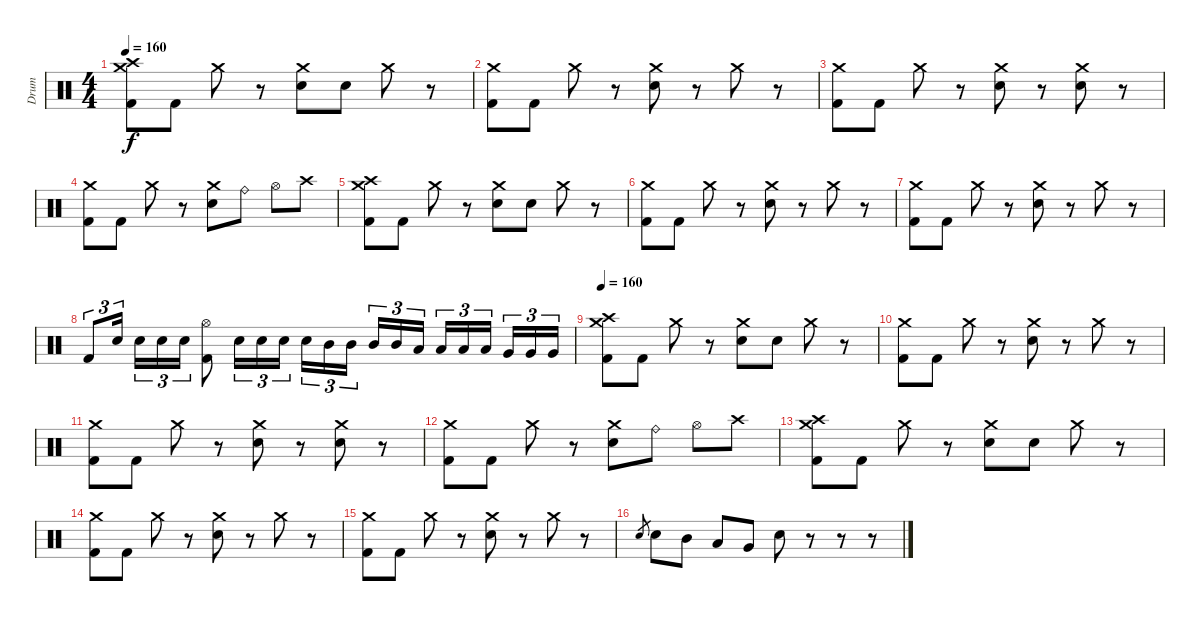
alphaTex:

\track ("Drum" "Drum") {instrument percussion}
\staff {score}
\articulation defaults
\ts (4 4)
\tempo 160
\clef neutral
\ks c
("Crash high (hit)" "Crash medium (hit)" "Kick (hit) 2").8{dy f} "Kick (hit) 2".8 "Crash medium (hit)".8 r.8 ("Crash medium (hit)" "Electric Snare (hit)").8 "Electric Snare (hit)".8 "Crash medium (hit)".8 r.8 |
("Crash medium (hit)" "Kick (hit) 2").8 "Kick (hit) 2".8 "Crash medium (hit)".8 r.8 ("Crash medium (hit)" "Electric Snare (hit)").8 r.8 "Crash medium (hit)".8 r.8 |
("Crash medium (hit)" "Kick (hit) 2").8 "Kick (hit) 2".8 "Crash medium (hit)".8 r.8 ("Crash medium (hit)" "Electric Snare (hit)").8 r.8 ("Crash medium (hit)" "Electric Snare (hit)").8 r.8 |
("Crash medium (hit)" "Kick (hit) 2").8 "Kick (hit) 2".8 "Crash medium (hit)".8 r.8 ("Crash medium (hit)" "Electric Snare (hit)").8 "Ride (bell)".8 "Hi-Hat (open)".8 "Crash high (hit)".8 |
("Crash high (hit)" "Crash medium (hit)" "Kick (hit) 2").8 "Kick (hit) 2".8 "Crash medium (hit)".8 r.8 ("Crash medium (hit)" "Electric Snare (hit)").8 "Electric Snare (hit)".8 "Crash medium (hit)".8 r.8 |
("Crash medium (hit)" "Kick (hit) 2").8 "Kick (hit) 2".8 "Crash medium (hit)".8 r.8 ("Crash medium (hit)" "Electric Snare (hit)").8 r.8 "Crash medium (hit)".8 r.8 |
("Crash medium (hit)" "Kick (hit) 2").8 "Kick (hit) 2".8 "Crash medium (hit)".8 r.8 ("Crash medium (hit)" "Electric Snare (hit)").8 r.8 "Crash medium (hit)".8 r.8 |
"Kick (hit) 2".8{tu (3 2)} "Electric Snare (hit)".16{tu (3 2)} "Electric Snare (hit)".16{tu (3 2)} "Electric Snare (hit)".16{tu (3 2)} "Electric Snare (hit)".16{tu (3 2)} ("Hi-Hat (open)" "Kick (hit) 2").8 "Electric Snare (hit)".16{tu (3 2)} "Electric Snare (hit)".16{tu (3 2)} "Electric Snare (hit)".16{tu (3 2)} "Electric Snare (hit)".16{tu (3 2)} "Mid Tom (hit)".16{tu (3 2)} "Mid Tom (hit)".16{tu (3 2)} "Mid Tom (hit)".16{tu (3 2)} "Mid Tom (hit)".16{tu (3 2)} "Low Tom (hit)".16{tu (3 2)} "Low Tom (hit)".16{tu (3 2)} "Low Tom (hit)".16{tu (3 2)} "Low Tom (hit)".16{tu (3 2)} "Very Low Tom (hit)".16{tu (3 2)} "Very Low Tom (hit)".16{tu (3 2)} "Very Low Tom (hit)".16{tu (3 2)} |
\tempo 160
("Crash high (hit)" "Crash medium (hit)" "Kick (hit) 2").8 "Kick (hit) 2".8 "Crash medium (hit)".8 r.8 ("Crash medium (hit)" "Electric Snare (hit)").8 "Electric Snare (hit)".8 "Crash medium (hit)".8 r.8 |
("Crash medium (hit)" "Kick (hit) 2").8 "Kick (hit) 2".8 "Crash medium (hit)".8 r.8 ("Crash medium (hit)" "Electric Snare (hit)").8 r.8 "Crash medium (hit)".8 r.8 |
("Crash medium (hit)" "Kick (hit) 2").8 "Kick (hit) 2".8 "Crash medium (hit)".8 r.8 ("Crash medium (hit)" "Electric Snare (hit)").8 r.8 ("Crash medium (hit)" "Electric Snare (hit)").8 r.8 |
("Crash medium (hit)" "Kick (hit) 2").8 "Kick (hit) 2".8 "Crash medium (hit)".8 r.8 ("Crash medium (hit)" "Electric Snare (hit)").8 "Ride (bell)".8 "Hi-Hat (open)".8 "Crash high (hit)".8 |
("Crash high (hit)" "Crash medium (hit)" "Kick (hit) 2").8 "Kick (hit) 2".8 "Crash medium (hit)".8 r.8 ("Crash medium (hit)" "Electric Snare (hit)").8 "Electric Snare (hit)".8 "Crash medium (hit)".8 r.8 |
("Crash medium (hit)" "Kick (hit) 2").8 "Kick (hit) 2".8 "Crash medium (hit)".8 r.8 ("Crash medium (hit)" "Electric Snare (hit)").8 r.8 "Crash medium (hit)".8 r.8 |
("Crash medium (hit)" "Kick (hit) 2").8 "Kick (hit) 2".8 "Crash medium (hit)".8 r.8 ("Crash medium (hit)" "Electric Snare (hit)").8 r.8 "Crash medium (hit)".8 r.8 |
"Electric Snare (hit)".8{gr} "Electric Snare (hit)".8 "Mid Tom (hit)".8 "Low Tom (hit)".8 "Very Low Tom (hit)".8 "Electric Snare (hit)".8 r.8 r.8 r.8
